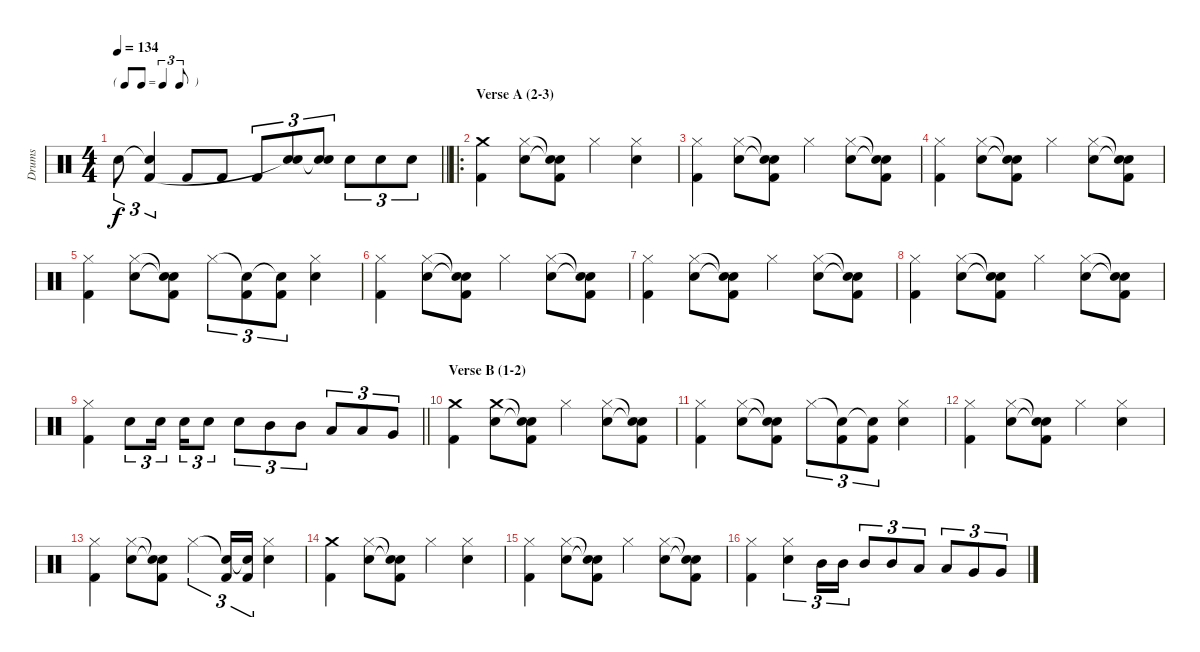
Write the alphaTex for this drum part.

\track ("Drums" "Drums") {instrument percussion}
\staff {score}
\articulation defaults
\ts (4 4)
\tf triplet8th
\tempo 134
\clef neutral
\barLineRight lightlight
\ks c "Electric Snare (hit)".8{tu (3 2) dy f}
("Snare (hit)"{t} "Kick (hit) 2").4{tu (3 2)} "Kick (hit) 2".8 "Kick (hit) 2".8 "Kick (hit) 2".8{tu (3 2)} ("Electric Snare (hit)" "Snare (hit)"{t}).8{tu (3 2)} ("Electric Snare (hit)" "Snare (hit)"{t}).8{tu (3 2)} "Electric Snare (hit)".8{tu (3 2)} "Electric Snare (hit)".8{tu (3 2)} "Electric Snare (hit)".8{tu (3 2)} |
\ro
\section ("" "Verse A (2-3)")
("Crash medium (hit)" "Kick (hit) 2").4 ("Hi-Hat (closed)" "Electric Snare (hit)").8 ("Snare (hit)"{t} "Snare (hit)"{t} "Kick (hit) 2").8 "Hi-Hat (closed)".4 ("Hi-Hat (closed)" "Electric Snare (hit)").4 |
("Hi-Hat (closed)" "Kick (hit) 2").4 ("Hi-Hat (closed)" "Electric Snare (hit)").8 ("Snare (hit)"{t} "Snare (hit)"{t} "Kick (hit) 2").8 "Hi-Hat (closed)".4 ("Hi-Hat (closed)" "Electric Snare (hit)").8 ("Snare (hit)"{t} "Snare (hit)"{t} "Kick (hit) 2").8 |
("Hi-Hat (closed)" "Kick (hit) 2").4 ("Hi-Hat (closed)" "Electric Snare (hit)").8 ("Snare (hit)"{t} "Snare (hit)"{t} "Kick (hit) 2").8 "Hi-Hat (closed)".4 ("Hi-Hat (closed)" "Electric Snare (hit)").8 ("Snare (hit)"{t} "Snare (hit)"{t} "Kick (hit) 2").8 |
("Hi-Hat (closed)" "Kick (hit) 2").4 ("Hi-Hat (closed)" "Electric Snare (hit)").8 ("Snare (hit)"{t} "Snare (hit)"{t} "Kick (hit) 2").8 "Hi-Hat (closed)".8{tu (3 2)} ("Snare (hit)"{t} "Kick (hit) 2").8{tu (3 2)} ("Snare (hit)"{t} "Kick (hit) 2").8{tu (3 2)} ("Hi-Hat (closed)" "Electric Snare (hit)").4 |
("Hi-Hat (closed)" "Kick (hit) 2").4 ("Hi-Hat (closed)" "Electric Snare (hit)").8 ("Snare (hit)"{t} "Snare (hit)"{t} "Kick (hit) 2").8 "Hi-Hat (closed)".4 ("Hi-Hat (closed)" "Electric Snare (hit)").8 ("Snare (hit)"{t} "Snare (hit)"{t} "Kick (hit) 2").8 |
("Hi-Hat (closed)" "Kick (hit) 2").4 ("Hi-Hat (closed)" "Electric Snare (hit)").8 ("Snare (hit)"{t} "Snare (hit)"{t} "Kick (hit) 2").8 "Hi-Hat (closed)".4 ("Hi-Hat (closed)" "Electric Snare (hit)").8 ("Snare (hit)"{t} "Snare (hit)"{t} "Kick (hit) 2").8 |
("Hi-Hat (closed)" "Kick (hit) 2").4 ("Hi-Hat (closed)" "Electric Snare (hit)").8 ("Snare (hit)"{t} "Snare (hit)"{t} "Kick (hit) 2").8 "Hi-Hat (closed)".4 ("Hi-Hat (closed)" "Electric Snare (hit)").8 ("Snare (hit)"{t} "Snare (hit)"{t} "Kick (hit) 2").8 |
\barLineRight lightlight
("Hi-Hat (closed)" "Kick (hit) 2").4 "Electric Snare (hit)".8{tu (3 2)} "Electric Snare (hit)".16{tu (3 2)} "Electric Snare (hit)".16{tu (3 2)} "Electric Snare (hit)".8{tu (3 2)} "Electric Snare (hit)".8{tu (3 2)} "Mid Tom (hit)".8{tu (3 2)} "Mid Tom (hit)".8{tu (3 2)} "Low Tom (hit)".8{tu (3 2)} "Low Tom (hit)".8{tu (3 2)} "Very Low Tom (hit)".8{tu (3 2)} |
\section ("" "Verse B (1-2)")
("Crash medium (hit)" "Kick (hit) 2").4 ("Crash medium (hit)" "Electric Snare (hit)").8 ("Snare (hit)"{t} "Snare (hit)"{t} "Kick (hit) 2").8 "Hi-Hat (closed)".4 ("Hi-Hat (closed)" "Electric Snare (hit)").8 ("Snare (hit)"{t} "Snare (hit)"{t} "Kick (hit) 2").8 |
("Hi-Hat (closed)" "Kick (hit) 2").4 ("Hi-Hat (closed)" "Electric Snare (hit)").8 ("Snare (hit)"{t} "Snare (hit)"{t} "Kick (hit) 2").8 "Hi-Hat (closed)".8{tu (3 2)} ("Snare (hit)"{t} "Kick (hit) 2").8{tu (3 2)} ("Snare (hit)"{t} "Kick (hit) 2").8{tu (3 2)} ("Hi-Hat (closed)" "Electric Snare (hit)").4 |
("Hi-Hat (closed)" "Kick (hit) 2").4 ("Hi-Hat (closed)" "Electric Snare (hit)").8 ("Snare (hit)"{t} "Snare (hit)"{t} "Kick (hit) 2").8 "Hi-Hat (closed)".4 ("Hi-Hat (closed)" "Electric Snare (hit)").4 |
("Hi-Hat (closed)" "Kick (hit) 2").4 ("Hi-Hat (closed)" "Electric Snare (hit)").8 ("Snare (hit)"{t} "Snare (hit)"{t} "Kick (hit) 2").8 "Hi-Hat (closed)".4{tu (3 2)} ("Snare (hit)"{t} "Kick (hit) 2").16{tu (3 2)} ("Snare (hit)"{t} "Kick (hit) 2").16{tu (3 2)} ("Hi-Hat (closed)" "Electric Snare (hit)").4 |
("Crash medium (hit)" "Kick (hit) 2").4 ("Hi-Hat (closed)" "Electric Snare (hit)").8 ("Snare (hit)"{t} "Snare (hit)"{t} "Kick (hit) 2").8 "Hi-Hat (closed)".4 ("Hi-Hat (closed)" "Electric Snare (hit)").4 |
("Hi-Hat (closed)" "Kick (hit) 2").4 ("Hi-Hat (closed)" "Electric Snare (hit)").8 ("Snare (hit)"{t} "Snare (hit)"{t} "Kick (hit) 2").8 "Hi-Hat (closed)".4 ("Hi-Hat (closed)" "Electric Snare (hit)").8 ("Snare (hit)"{t} "Snare (hit)"{t} "Kick (hit) 2").8 |
("Hi-Hat (closed)" "Kick (hit) 2").4 ("Hi-Hat (closed)" "Electric Snare (hit)").4{tu (3 2)} "Mid Tom (hit)".16{tu (3 2)} "Mid Tom (hit)".16{tu (3 2)} "Mid Tom (hit)".8{tu (3 2)} "Mid Tom (hit)".8{tu (3 2)} "Low Tom (hit)".8{tu (3 2)} "Low Tom (hit)".8{tu (3 2)} "Very Low Tom (hit)".8{tu (3 2)} "Very Low Tom (hit)".8{tu (3 2)}
